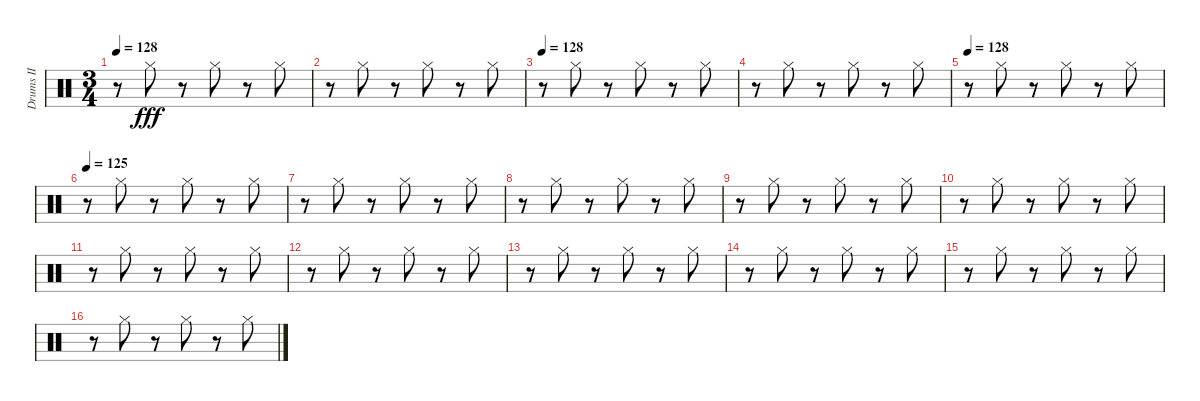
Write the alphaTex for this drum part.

\track ("Drums II" "Drums II") {instrument percussion}
\staff {score}
\articulation defaults
\ts (3 4)
\tempo 128
\clef neutral
\ks c
r.8{dy fff} "Hi-Hat (closed)".8 r.8 "Hi-Hat (closed)".8 r.8 "Hi-Hat (closed)".8 |
r.8 "Hi-Hat (closed)".8 r.8 "Hi-Hat (closed)".8 r.8 "Hi-Hat (closed)".8 |
\tempo 128
r.8 "Hi-Hat (closed)".8 r.8 "Hi-Hat (closed)".8 r.8 "Hi-Hat (closed)".8 |
r.8 "Hi-Hat (closed)".8 r.8 "Hi-Hat (closed)".8 r.8 "Hi-Hat (closed)".8 |
\tempo 128
r.8 "Hi-Hat (closed)".8 r.8 "Hi-Hat (closed)".8 r.8 "Hi-Hat (closed)".8 |
\tempo 125
r.8 "Hi-Hat (closed)".8 r.8 "Hi-Hat (closed)".8 r.8 "Hi-Hat (closed)".8 |
r.8 "Hi-Hat (closed)".8 r.8 "Hi-Hat (closed)".8 r.8 "Hi-Hat (closed)".8 |
r.8 "Hi-Hat (closed)".8 r.8 "Hi-Hat (closed)".8 r.8 "Hi-Hat (closed)".8 |
r.8 "Hi-Hat (closed)".8 r.8 "Hi-Hat (closed)".8 r.8 "Hi-Hat (closed)".8 |
r.8 "Hi-Hat (closed)".8 r.8 "Hi-Hat (closed)".8 r.8 "Hi-Hat (closed)".8 |
r.8 "Hi-Hat (closed)".8 r.8 "Hi-Hat (closed)".8 r.8 "Hi-Hat (closed)".8 |
r.8 "Hi-Hat (closed)".8 r.8 "Hi-Hat (closed)".8 r.8 "Hi-Hat (closed)".8 |
r.8 "Hi-Hat (closed)".8 r.8 "Hi-Hat (closed)".8 r.8 "Hi-Hat (closed)".8 |
r.8 "Hi-Hat (closed)".8 r.8 "Hi-Hat (closed)".8 r.8 "Hi-Hat (closed)".8 |
r.8 "Hi-Hat (closed)".8 r.8 "Hi-Hat (closed)".8 r.8 "Hi-Hat (closed)".8 |
r.8 "Hi-Hat (closed)".8 r.8 "Hi-Hat (closed)".8 r.8 "Hi-Hat (closed)".8
